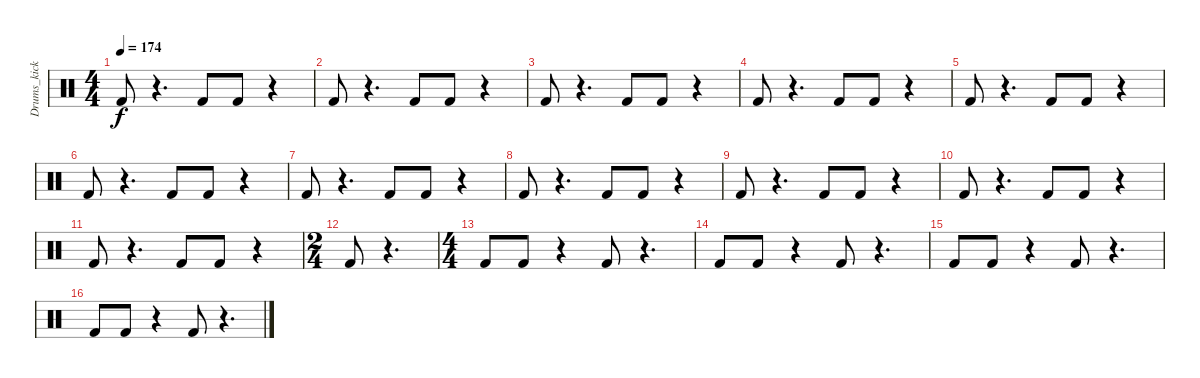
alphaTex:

\track ("Drums_kick" "Drums_kick") {instrument percussion}
\staff {score}
\articulation defaults
\ts (4 4)
\tempo 174
\clef neutral
\ks c "Kick (hit) 2".8{dy f}
r.4{d} "Kick (hit) 2".8 "Kick (hit) 2".8 r.4 |
"Kick (hit) 2".8 r.4{d} "Kick (hit) 2".8 "Kick (hit) 2".8 r.4 |
"Kick (hit) 2".8 r.4{d} "Kick (hit) 2".8 "Kick (hit) 2".8 r.4 |
"Kick (hit) 2".8 r.4{d} "Kick (hit) 2".8 "Kick (hit) 2".8 r.4 |
"Kick (hit) 2".8 r.4{d} "Kick (hit) 2".8 "Kick (hit) 2".8 r.4 |
"Kick (hit) 2".8 r.4{d} "Kick (hit) 2".8 "Kick (hit) 2".8 r.4 |
"Kick (hit) 2".8 r.4{d} "Kick (hit) 2".8 "Kick (hit) 2".8 r.4 |
"Kick (hit) 2".8 r.4{d} "Kick (hit) 2".8 "Kick (hit) 2".8 r.4 |
"Kick (hit) 2".8 r.4{d} "Kick (hit) 2".8 "Kick (hit) 2".8 r.4 |
"Kick (hit) 2".8 r.4{d} "Kick (hit) 2".8 "Kick (hit) 2".8 r.4 |
"Kick (hit) 2".8 r.4{d} "Kick (hit) 2".8 "Kick (hit) 2".8 r.4 |
\ts (2 4)
"Kick (hit) 2".8 r.4{d} |
\ts (4 4)
"Kick (hit) 2".8 "Kick (hit) 2".8 r.4 "Kick (hit) 2".8 r.4{d} |
"Kick (hit) 2".8 "Kick (hit) 2".8 r.4 "Kick (hit) 2".8 r.4{d} |
"Kick (hit) 2".8 "Kick (hit) 2".8 r.4 "Kick (hit) 2".8 r.4{d} |
"Kick (hit) 2".8 "Kick (hit) 2".8 r.4 "Kick (hit) 2".8 r.4{d}
